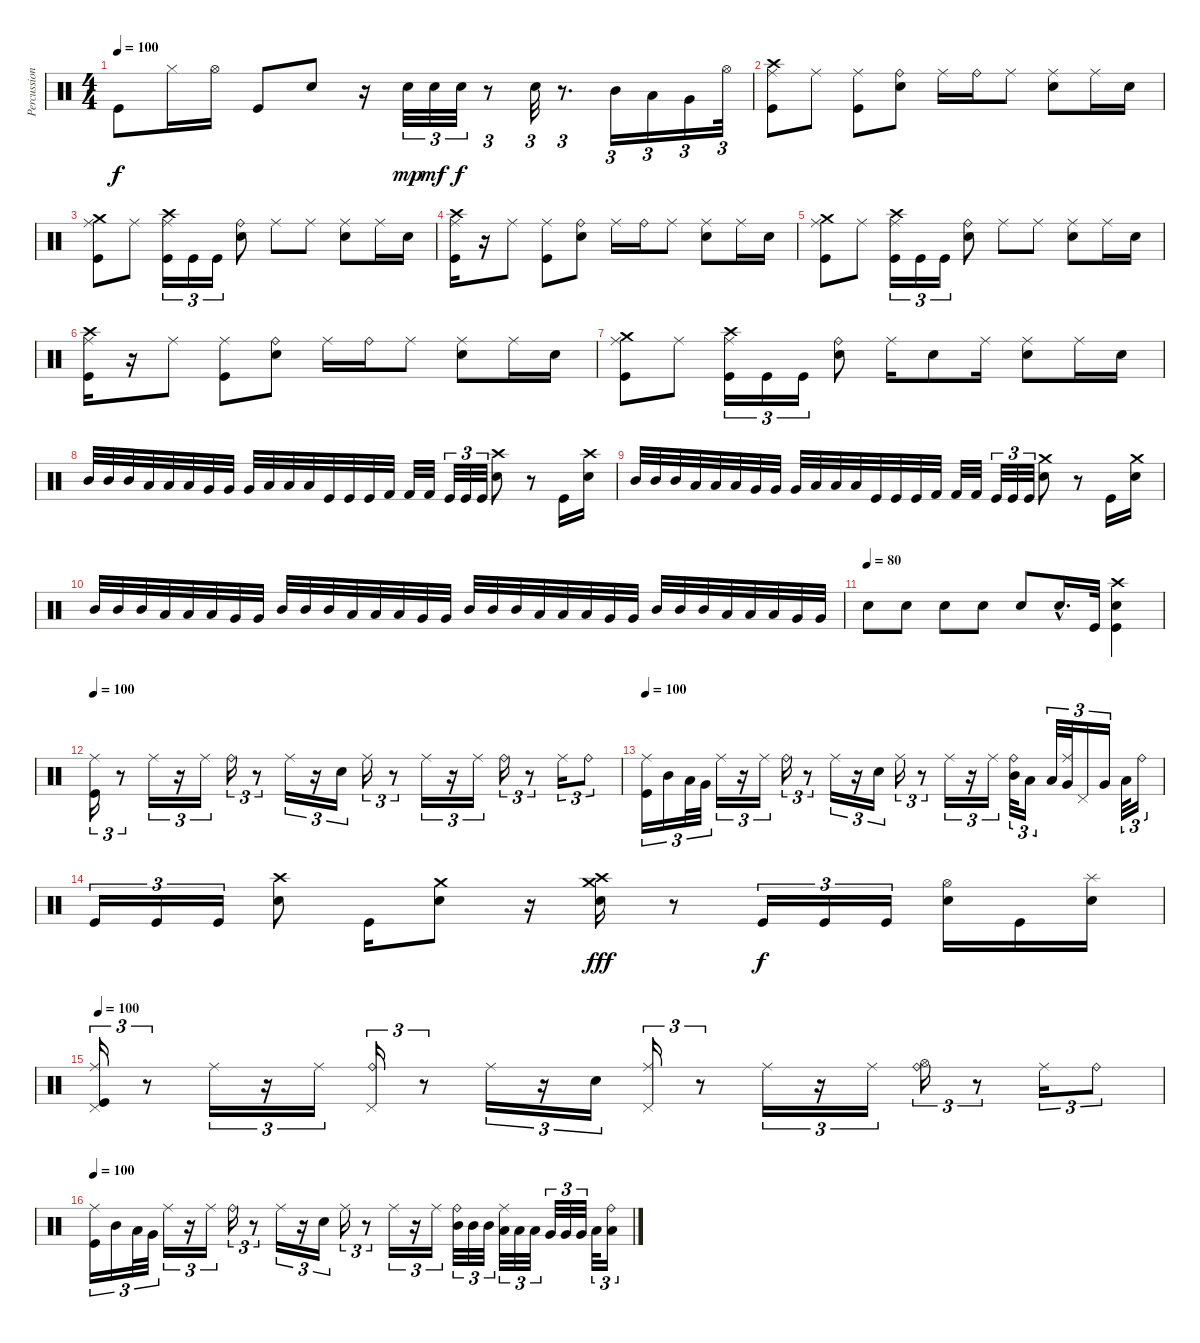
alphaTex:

\track ("Percussions" "Percussion") {instrument percussion}
\staff {score}
\articulation defaults
\ts (4 4)
\tempo 100
\clef neutral
\ks c "Kick (hit)".8{dy f} "Hi-Hat (closed)".16 "Hi-Hat (open)".16 "Kick (hit)".8 "Snare (hit) 2".8
r.16 "Snare (hit) 2".32{tu (3 2) dy mp} "Snare (hit) 2".32{tu (3 2) dy mf} "Snare (hit) 2".32{tu (3 2) dy f} r.8{tu (3 2)} "Snare (hit) 2".32{tu (3 2)} r.8{d tu (3 2)} "Mid Tom (hit)".16{tu (3 2)} "Low Tom (hit)".16{tu (3 2)} "Very Low Tom (hit)".16{tu (3 2)} "Hi-Hat (open)".32{tu (3 2)} |
("Ride (middle)" "Crash high (hit)" "Kick (hit)").8 "Ride (middle)".8 ("Ride (middle)" "Kick (hit)").8 ("Ride (bell)" "Snare (hit) 2").8 "Ride (middle)".16 "Ride (bell)".16 "Ride (middle)".8 ("Ride (middle)" "Snare (hit) 2").8 "Ride (middle)".16 "Snare (hit) 2".16 |
("Ride (middle)" "Crash medium (hit)" "Kick (hit)").8 "Ride (middle)".8 ("Ride (middle)" "Crash high (hit)" "Kick (hit)").16{tu (3 2)} "Kick (hit)".16{tu (3 2)} "Kick (hit)".16{tu (3 2)} ("Ride (bell)" "Snare (hit) 2").8 "Ride (middle)".8 "Ride (middle)".8 ("Ride (middle)" "Snare (hit) 2").8 "Ride (middle)".16 "Snare (hit) 2".16 |
("Ride (middle)" "Crash high (hit)" "Kick (hit)").16 r.16 "Ride (middle)".8 ("Ride (middle)" "Kick (hit)").8 ("Ride (bell)" "Snare (hit) 2").8 "Ride (middle)".16 "Ride (bell)".16 "Ride (middle)".8 ("Ride (middle)" "Snare (hit) 2").8 "Ride (middle)".16 "Snare (hit) 2".16 |
("Ride (middle)" "Crash medium (hit)" "Kick (hit)").8 "Ride (middle)".8 ("Ride (middle)" "Crash high (hit)" "Kick (hit)").16{tu (3 2)} "Kick (hit)".16{tu (3 2)} "Kick (hit)".16{tu (3 2)} ("Ride (bell)" "Snare (hit) 2").8 "Ride (middle)".8 "Ride (middle)".8 ("Ride (middle)" "Snare (hit) 2").8 "Ride (middle)".16 "Snare (hit) 2".16 |
("Ride (middle)" "Crash high (hit)" "Kick (hit)").16 r.16 "Ride (middle)".8 ("Ride (middle)" "Kick (hit)").8 ("Ride (bell)" "Snare (hit) 2").8 "Ride (middle)".16 "Ride (bell)".16 "Ride (middle)".8 ("Ride (middle)" "Snare (hit) 2").8 "Ride (middle)".16 "Snare (hit) 2".16 |
("Ride (middle)" "Crash medium (hit)" "Kick (hit)").8 "Ride (middle)".8 ("Ride (middle)" "Crash high (hit)" "Kick (hit)").16{tu (3 2)} "Kick (hit)".16{tu (3 2)} "Kick (hit)".16{tu (3 2)} ("Ride (bell)" "Snare (hit) 2").8 "Ride (middle)".16 "Snare (hit) 2".8 "Ride (middle)".16 ("Ride (middle)" "Snare (hit) 2").8 "Ride (middle)".16 "Snare (hit) 2".16 |
"Mid Tom (hit)".32 "Mid Tom (hit)".32 "Mid Tom (hit)".32 "Low Tom (hit)".32 "Low Tom (hit)".32 "Low Tom (hit)".32 "Very Low Tom (hit)".32 "Very Low Tom (hit)".32 "Very Low Tom (hit)".32 "Low Floor Tom (hit)".32 "Low Floor Tom (hit)".32 "Low Floor Tom (hit)".32 "Kick (hit)".32 "Kick (hit)".32 "Kick (hit)".32 "Kick (hit) 2".32 "Kick (hit) 2".32 "Kick (hit) 2".32 "Kick (hit)".32{tu (3 2)} "Kick (hit)".32{tu (3 2)} "Kick (hit)".32{tu (3 2)} ("Crash high (hit)" "Snare (hit) 2").8 r.8 "Kick (hit)".16 ("Crash high (hit)" "Snare (hit) 2").16 |
"Mid Tom (hit)".32 "Mid Tom (hit)".32 "Mid Tom (hit)".32 "Low Tom (hit)".32 "Low Tom (hit)".32 "Low Tom (hit)".32 "Very Low Tom (hit)".32 "Very Low Tom (hit)".32 "Very Low Tom (hit)".32 "Low Floor Tom (hit)".32 "Low Floor Tom (hit)".32 "Low Floor Tom (hit)".32 "Kick (hit)".32 "Kick (hit)".32 "Kick (hit)".32 "Kick (hit) 2".32 "Kick (hit) 2".32 "Kick (hit) 2".32 "Kick (hit)".32{tu (3 2)} "Kick (hit)".32{tu (3 2)} "Kick (hit)".32{tu (3 2)} ("Crash medium (hit)" "Snare (hit) 2").8 r.8 "Kick (hit)".16 ("Crash medium (hit)" "Snare (hit) 2").16 |
"Mid Tom (hit)".32 "Mid Tom (hit)".32 "Mid Tom (hit)".32 "Low Tom (hit)".32 "Low Tom (hit)".32 "Low Tom (hit)".32 "Very Low Tom (hit)".32 "Very Low Tom (hit)".32 "Mid Tom (hit)".32 "Mid Tom (hit)".32 "Mid Tom (hit)".32 "Low Tom (hit)".32 "Low Tom (hit)".32 "Low Tom (hit)".32 "Very Low Tom (hit)".32 "Very Low Tom (hit)".32 "Mid Tom (hit)".32 "Mid Tom (hit)".32 "Mid Tom (hit)".32 "Low Tom (hit)".32 "Low Tom (hit)".32 "Low Tom (hit)".32 "Very Low Tom (hit)".32 "Very Low Tom (hit)".32 "Mid Tom (hit)".32 "Mid Tom (hit)".32 "Mid Tom (hit)".32 "Low Tom (hit)".32 "Low Tom (hit)".32 "Low Tom (hit)".32 "Very Low Tom (hit)".32 "Very Low Tom (hit)".32 |
\tempo (80)
"Snare (hit) 2".8 "Snare (hit) 2".8 "Snare (hit) 2".8 "Snare (hit) 2".8 "Snare (hit) 2".8 "Snare (hit) 2"{hac}.16{d} "Kick (hit)".32 ("Crash high (hit)" "Kick (hit)" "Snare (hit) 2").4 |
\tempo 100
("Ride (middle)" "Kick (hit)").16{tu (3 2)} r.8{tu (3 2)} "Ride (middle)".16{tu (3 2)} r.16{tu (3 2)} "Ride (middle)".16{tu (3 2)} "Ride (bell)".16{tu (3 2)} r.8{tu (3 2)} "Ride (middle)".16{tu (3 2)} r.16{tu (3 2)} "Snare (hit) 2".16{tu (3 2)} "Ride (middle)".16{tu (3 2)} r.8{tu (3 2)} "Ride (middle)".16{tu (3 2)} r.16{tu (3 2)} "Ride (middle)".16{tu (3 2)} "Ride (bell)".16{tu (3 2)} r.8{tu (3 2)} "Ride (middle)".16{tu (3 2)} "Ride (bell)".8{tu (3 2)} |
\tempo 100
("Ride (middle)" "Kick (hit)").16{tu (3 2)} "Mid Tom (hit)".16{tu (3 2)} "Low Tom (hit)".32{tu (3 2)} "Very Low Tom (hit)".32{tu (3 2)} "Ride (middle)".16{tu (3 2)} r.16{tu (3 2)} "Ride (middle)".16{tu (3 2)} "Ride (bell)".16{tu (3 2)} r.8{tu (3 2)} "Ride (middle)".16{tu (3 2)} r.16{tu (3 2)} "Snare (hit) 2".16{tu (3 2)} "Ride (middle)".16{tu (3 2)} r.8{tu (3 2)} "Ride (middle)".16{tu (3 2)} r.16{tu (3 2)} "Ride (middle)".16{tu (3 2)} ("Ride (bell)" "Mid Tom (hit)").32{tu (3 2)} "Low Tom (hit)".16{tu (3 2)} "Low Tom (hit)".32{tu (3 2)} ("Ride (middle)" "Very Low Tom (hit)").32{tu (3 2)} "Pedal Hi-Hat (hit)".16{tu (3 2)} "Very Low Tom (hit)".16{tu (3 2)} "Low Floor Tom (hit)".32{tu (3 2)} "Ride (bell)".16{tu (3 2)} |
"Kick (hit)".16{tu (3 2)} "Kick (hit)".16{tu (3 2)} "Kick (hit)".16{tu (3 2)} ("Crash high (hit)" "Snare (hit) 2").8 "Kick (hit)".16 ("Crash medium (hit)" "Snare (hit) 2").8 r.16 ("Crash high (hit)" "Crash medium (hit)" "Snare (hit) 2").16{dy fff} r.8 "Kick (hit)".16{tu (3 2) dy f} "Kick (hit)".16{tu (3 2)} "Kick (hit)".16{tu (3 2)} ("Hi-Hat (open)" "Snare (hit) 2").16 "Kick (hit)".16 ("Splash (hit)" "Snare (hit) 2").16 |
\tempo 100
("Ride (middle)" "Pedal Hi-Hat (hit)" "Kick (hit)").16{tu (3 2)} r.8{tu (3 2)} "Ride (middle)".16{tu (3 2)} r.16{tu (3 2)} "Ride (middle)".16{tu (3 2)} ("Ride (bell)" "Pedal Hi-Hat (hit)").16{tu (3 2)} r.8{tu (3 2)} "Ride (middle)".16{tu (3 2)} r.16{tu (3 2)} "Snare (hit) 2".16{tu (3 2)} ("Ride (middle)" "Pedal Hi-Hat (hit)").16{tu (3 2)} r.8{tu (3 2)} "Ride (middle)".16{tu (3 2)} r.16{tu (3 2)} "Ride (middle)".16{tu (3 2)} ("Ride (bell)" "Hi-Hat (open)").16{tu (3 2)} r.8{tu (3 2)} "Ride (middle)".16{tu (3 2)} "Ride (bell)".8{tu (3 2)} |
\tempo 100
("Ride (middle)" "Kick (hit)").16{tu (3 2)} "Mid Tom (hit)".16{tu (3 2)} "Low Tom (hit)".32{tu (3 2)} "Very Low Tom (hit)".32{tu (3 2)} "Ride (middle)".16{tu (3 2)} r.16{tu (3 2)} "Ride (middle)".16{tu (3 2)} "Ride (bell)".16{tu (3 2)} r.8{tu (3 2)} "Ride (middle)".16{tu (3 2)} r.16{tu (3 2)} "Snare (hit) 2".16{tu (3 2)} "Ride (middle)".16{tu (3 2)} r.8{tu (3 2)} "Ride (middle)".16{tu (3 2)} r.16{tu (3 2)} "Ride (middle)".16{tu (3 2)} ("Ride (bell)" "Mid Tom (hit)").32{tu (3 2)} "Mid Tom (hit)".32{tu (3 2)} "Mid Tom (hit)".32{tu (3 2)} ("Ride (middle)" "Low Tom (hit)").32{tu (3 2)} "Low Tom (hit)".32{tu (3 2)} "Low Tom (hit)".32{tu (3 2)} "Very Low Tom (hit)".32{tu (3 2)} "Very Low Tom (hit)".32{tu (3 2)} "Very Low Tom (hit)".32{tu (3 2)} "Low Floor Tom (hit)".32{tu (3 2)} ("Ride (bell)" "Low Floor Tom (hit)").16{tu (3 2)}
